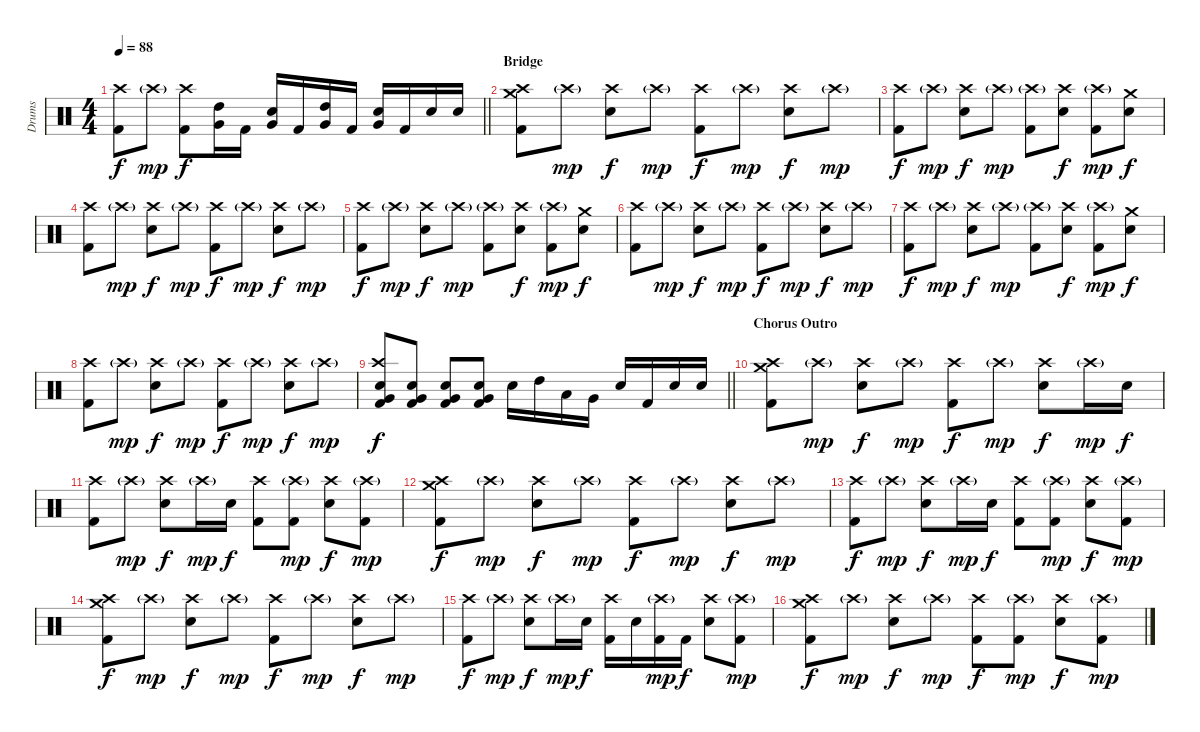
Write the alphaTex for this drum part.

\track ("Drums" "Drums") {instrument percussion}
\staff {score}
\articulation defaults
\ts (4 4)
\tempo 88
\clef neutral
\barLineRight lightlight
\ks c
("Kick (hit) 2" "Crash high (hit)").8{dy f} "Crash high (hit)"{g}.8{dy mp} ("Kick (hit) 2" "Crash high (hit)").8{dy f} ("Very Low Tom (hit)" "High Tom (hit)").16 "Kick (hit) 2".16 ("Very Low Tom (hit)" "Electric Snare (hit)").16 "Kick (hit) 2".16 ("Very Low Tom (hit)" "High Tom (hit)").16 "Kick (hit) 2".16 ("Very Low Tom (hit)" "Electric Snare (hit)").16 "Kick (hit) 2".16 "Electric Snare (hit)".16 "Electric Snare (hit)".16 |
\section ("" "Bridge")
("Kick (hit) 2" "Crash high (hit)" "Crash medium (hit)").8 "Crash high (hit)"{g}.8{dy mp} ("Electric Snare (hit)" "Crash high (hit)").8{dy f} "Crash high (hit)"{g}.8{dy mp} ("Kick (hit) 2" "Crash high (hit)").8{dy f} "Crash high (hit)"{g}.8{dy mp} ("Electric Snare (hit)" "Crash high (hit)").8{dy f} "Crash high (hit)"{g}.8{dy mp} |
("Kick (hit) 2" "Crash high (hit)").8{dy f} "Crash high (hit)"{g}.8{dy mp} ("Electric Snare (hit)" "Crash high (hit)").8{dy f} "Crash high (hit)"{g}.8{dy mp} ("Kick (hit) 2" "Crash high (hit)"{g}).8 ("Electric Snare (hit)" "Crash high (hit)").8{dy f} ("Kick (hit) 2" "Crash high (hit)"{g}).8{dy mp} ("Electric Snare (hit)" "Crash medium (hit)").8{dy f} |
("Kick (hit) 2" "Crash high (hit)").8 "Crash high (hit)"{g}.8{dy mp} ("Electric Snare (hit)" "Crash high (hit)").8{dy f} "Crash high (hit)"{g}.8{dy mp} ("Kick (hit) 2" "Crash high (hit)").8{dy f} "Crash high (hit)"{g}.8{dy mp} ("Electric Snare (hit)" "Crash high (hit)").8{dy f} "Crash high (hit)"{g}.8{dy mp} |
("Kick (hit) 2" "Crash high (hit)").8{dy f} "Crash high (hit)"{g}.8{dy mp} ("Electric Snare (hit)" "Crash high (hit)").8{dy f} "Crash high (hit)"{g}.8{dy mp} ("Kick (hit) 2" "Crash high (hit)"{g}).8 ("Electric Snare (hit)" "Crash high (hit)").8{dy f} ("Kick (hit) 2" "Crash high (hit)"{g}).8{dy mp} ("Electric Snare (hit)" "Crash medium (hit)").8{dy f} |
("Kick (hit) 2" "Crash high (hit)").8 "Crash high (hit)"{g}.8{dy mp} ("Electric Snare (hit)" "Crash high (hit)").8{dy f} "Crash high (hit)"{g}.8{dy mp} ("Kick (hit) 2" "Crash high (hit)").8{dy f} "Crash high (hit)"{g}.8{dy mp} ("Electric Snare (hit)" "Crash high (hit)").8{dy f} "Crash high (hit)"{g}.8{dy mp} |
("Kick (hit) 2" "Crash high (hit)").8{dy f} "Crash high (hit)"{g}.8{dy mp} ("Electric Snare (hit)" "Crash high (hit)").8{dy f} "Crash high (hit)"{g}.8{dy mp} ("Kick (hit) 2" "Crash high (hit)"{g}).8 ("Electric Snare (hit)" "Crash high (hit)").8{dy f} ("Kick (hit) 2" "Crash high (hit)"{g}).8{dy mp} ("Electric Snare (hit)" "Crash medium (hit)").8{dy f} |
("Kick (hit) 2" "Crash high (hit)").8 "Crash high (hit)"{g}.8{dy mp} ("Electric Snare (hit)" "Crash high (hit)").8{dy f} "Crash high (hit)"{g}.8{dy mp} ("Kick (hit) 2" "Crash high (hit)").8{dy f} "Crash high (hit)"{g}.8{dy mp} ("Electric Snare (hit)" "Crash high (hit)").8{dy f} "Crash high (hit)"{g}.8{dy mp} |
\barLineRight lightlight
("Kick (hit) 2" "Very Low Tom (hit)" "Electric Snare (hit)" "Crash high (hit)").8{dy f} ("Kick (hit) 2" "Very Low Tom (hit)" "Electric Snare (hit)").8 ("Kick (hit) 2" "Very Low Tom (hit)" "Electric Snare (hit)").8 ("Kick (hit) 2" "Very Low Tom (hit)" "Electric Snare (hit)").8 "Electric Snare (hit)".16 "High Tom (hit)".16 "Low Tom (hit)".16 "Very Low Tom (hit)".16 "Electric Snare (hit)".16 "Kick (hit) 2".16 "Electric Snare (hit)".16 "Electric Snare (hit)".16 |
\section ("" "Chorus Outro")
("Kick (hit) 2" "Crash high (hit)" "Crash medium (hit)").8 "Crash high (hit)"{g}.8{dy mp} ("Electric Snare (hit)" "Crash high (hit)").8{dy f} "Crash high (hit)"{g}.8{dy mp} ("Kick (hit) 2" "Crash high (hit)").8{dy f} "Crash high (hit)"{g}.8{dy mp} ("Electric Snare (hit)" "Crash high (hit)").8{dy f} "Crash high (hit)"{g}.16{dy mp} "Electric Snare (hit)".16{dy f} |
("Kick (hit) 2" "Crash high (hit)").8 "Crash high (hit)"{g}.8{dy mp} ("Electric Snare (hit)" "Crash high (hit)").8{dy f} "Crash high (hit)"{g}.16{dy mp} "Electric Snare (hit)".16{dy f} ("Kick (hit) 2" "Crash high (hit)").8 ("Kick (hit) 2" "Crash high (hit)"{g}).8{dy mp} ("Electric Snare (hit)" "Crash high (hit)").8{dy f} ("Kick (hit) 2" "Crash high (hit)"{g}).8{dy mp} |
("Kick (hit) 2" "Crash high (hit)" "Crash medium (hit)").8{dy f} "Crash high (hit)"{g}.8{dy mp} ("Electric Snare (hit)" "Crash high (hit)").8{dy f} "Crash high (hit)"{g}.8{dy mp} ("Kick (hit) 2" "Crash high (hit)").8{dy f} "Crash high (hit)"{g}.8{dy mp} ("Electric Snare (hit)" "Crash high (hit)").8{dy f} "Crash high (hit)"{g}.8{dy mp} |
("Kick (hit) 2" "Crash high (hit)").8{dy f} "Crash high (hit)"{g}.8{dy mp} ("Electric Snare (hit)" "Crash high (hit)").8{dy f} "Crash high (hit)"{g}.16{dy mp} "Electric Snare (hit)".16{dy f} ("Kick (hit) 2" "Crash high (hit)").8 ("Kick (hit) 2" "Crash high (hit)"{g}).8{dy mp} ("Electric Snare (hit)" "Crash high (hit)").8{dy f} ("Kick (hit) 2" "Crash high (hit)"{g}).8{dy mp} |
("Kick (hit) 2" "Crash high (hit)" "Crash medium (hit)").8{dy f} "Crash high (hit)"{g}.8{dy mp} ("Electric Snare (hit)" "Crash high (hit)").8{dy f} "Crash high (hit)"{g}.8{dy mp} ("Kick (hit) 2" "Crash high (hit)").8{dy f} "Crash high (hit)"{g}.8{dy mp} ("Electric Snare (hit)" "Crash high (hit)").8{dy f} "Crash high (hit)"{g}.8{dy mp} |
("Kick (hit) 2" "Crash high (hit)").8{dy f} "Crash high (hit)"{g}.8{dy mp} ("Electric Snare (hit)" "Crash high (hit)").8{dy f} "Crash high (hit)"{g}.16{dy mp} "Electric Snare (hit)".16{dy f} ("Kick (hit) 2" "Crash high (hit)").16 "Electric Snare (hit)".16 ("Kick (hit) 2" "Crash high (hit)"{g}).16{dy mp} "Kick (hit) 2".16{dy f} ("Electric Snare (hit)" "Crash high (hit)").8 ("Kick (hit) 2" "Crash high (hit)"{g}).8{dy mp} |
("Kick (hit) 2" "Crash high (hit)" "Crash medium (hit)").8{dy f} "Crash high (hit)"{g}.8{dy mp} ("Electric Snare (hit)" "Crash high (hit)").8{dy f} "Crash high (hit)"{g}.8{dy mp} ("Kick (hit) 2" "Crash high (hit)").8{dy f} ("Kick (hit) 2" "Crash high (hit)"{g}).8{dy mp} ("Electric Snare (hit)" "Crash high (hit)").8{dy f} ("Kick (hit) 2" "Crash high (hit)"{g}).8{dy mp}
